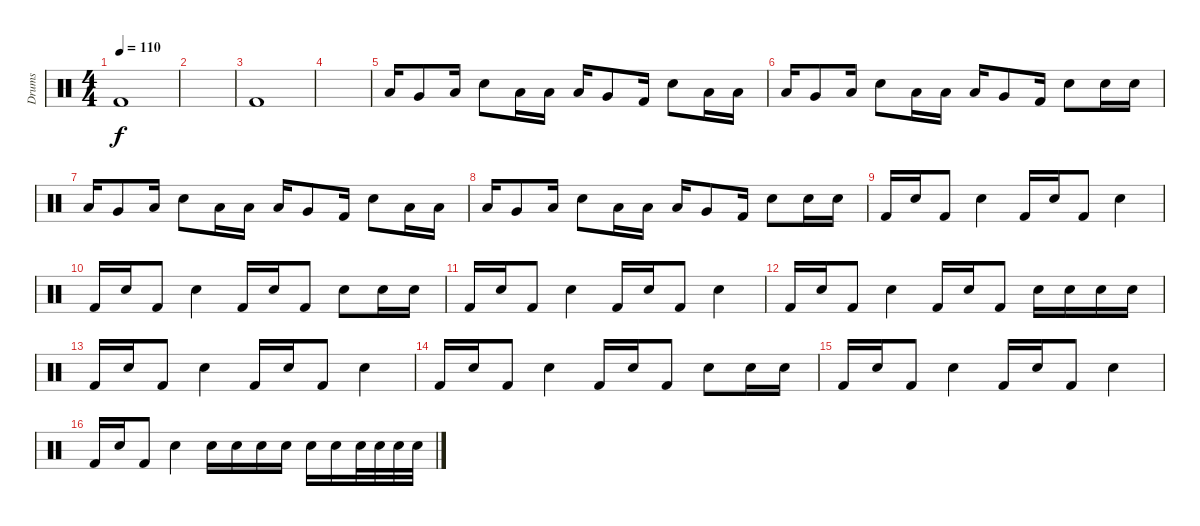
\track ("Drums" "Drums") {instrument percussion}
\staff {score}
\articulation defaults
\ts (4 4)
\tempo 110
\clef neutral
\ks c "Kick (hit) 2".1{dy f}
|
|
"Kick (hit) 2".1 |
|
"Low Tom (hit)".16 "Very Low Tom (hit)".8 "Low Floor Tom (hit)".16 "Electric Snare (hit)".8 "Low Tom (hit)".16 "Low Tom (hit)".16 "Low Tom (hit)".16 "Very Low Tom (hit)".8 "Kick (hit) 2".16 "Electric Snare (hit)".8 "Low Tom (hit)".16 "Low Tom (hit)".16 |
"Low Tom (hit)".16 "Very Low Tom (hit)".8 "Low Floor Tom (hit)".16 "Electric Snare (hit)".8 "Low Tom (hit)".16 "Low Tom (hit)".16 "Low Tom (hit)".16 "Very Low Tom (hit)".8 "Kick (hit) 2".16 "Electric Snare (hit)".8 "Electric Snare (hit)".16 "Electric Snare (hit)".16 |
"Low Tom (hit)".16 "Very Low Tom (hit)".8 "Low Floor Tom (hit)".16 "Electric Snare (hit)".8 "Low Tom (hit)".16 "Low Tom (hit)".16 "Low Tom (hit)".16 "Very Low Tom (hit)".8 "Kick (hit) 2".16 "Electric Snare (hit)".8 "Low Tom (hit)".16 "Low Tom (hit)".16 |
"Low Tom (hit)".16 "Very Low Tom (hit)".8 "Low Floor Tom (hit)".16 "Electric Snare (hit)".8 "Low Tom (hit)".16 "Low Tom (hit)".16 "Low Tom (hit)".16 "Very Low Tom (hit)".8 "Kick (hit) 2".16 "Electric Snare (hit)".8 "Electric Snare (hit)".16 "Electric Snare (hit)".16 |
"Kick (hit) 2".16 "Electric Snare (hit)".16 "Kick (hit) 2".8 "Electric Snare (hit)".4 "Kick (hit) 2".16 "Electric Snare (hit)".16 "Kick (hit) 2".8 "Electric Snare (hit)".4 |
"Kick (hit) 2".16 "Electric Snare (hit)".16 "Kick (hit) 2".8 "Electric Snare (hit)".4 "Kick (hit) 2".16 "Electric Snare (hit)".16 "Kick (hit) 2".8 "Electric Snare (hit)".8 "Electric Snare (hit)".16 "Electric Snare (hit)".16 |
"Kick (hit) 2".16 "Electric Snare (hit)".16 "Kick (hit) 2".8 "Electric Snare (hit)".4 "Kick (hit) 2".16 "Electric Snare (hit)".16 "Kick (hit) 2".8 "Electric Snare (hit)".4 |
"Kick (hit) 2".16 "Electric Snare (hit)".16 "Kick (hit) 2".8 "Electric Snare (hit)".4 "Kick (hit) 2".16 "Electric Snare (hit)".16 "Kick (hit) 2".8 "Electric Snare (hit)".16 "Electric Snare (hit)".16 "Electric Snare (hit)".16 "Electric Snare (hit)".16 |
"Kick (hit) 2".16 "Electric Snare (hit)".16 "Kick (hit) 2".8 "Electric Snare (hit)".4 "Kick (hit) 2".16 "Electric Snare (hit)".16 "Kick (hit) 2".8 "Electric Snare (hit)".4 |
"Kick (hit) 2".16 "Electric Snare (hit)".16 "Kick (hit) 2".8 "Electric Snare (hit)".4 "Kick (hit) 2".16 "Electric Snare (hit)".16 "Kick (hit) 2".8 "Electric Snare (hit)".8 "Electric Snare (hit)".16 "Electric Snare (hit)".16 |
"Kick (hit) 2".16 "Electric Snare (hit)".16 "Kick (hit) 2".8 "Electric Snare (hit)".4 "Kick (hit) 2".16 "Electric Snare (hit)".16 "Kick (hit) 2".8 "Electric Snare (hit)".4 |
"Kick (hit) 2".16 "Electric Snare (hit)".16 "Kick (hit) 2".8 "Electric Snare (hit)".4 "Electric Snare (hit)".16 "Electric Snare (hit)".16 "Electric Snare (hit)".16 "Electric Snare (hit)".16 "Electric Snare (hit)".16 "Electric Snare (hit)".16 "Electric Snare (hit)".32 "Electric Snare (hit)".32 "Electric Snare (hit)".32 "Electric Snare (hit)".32
